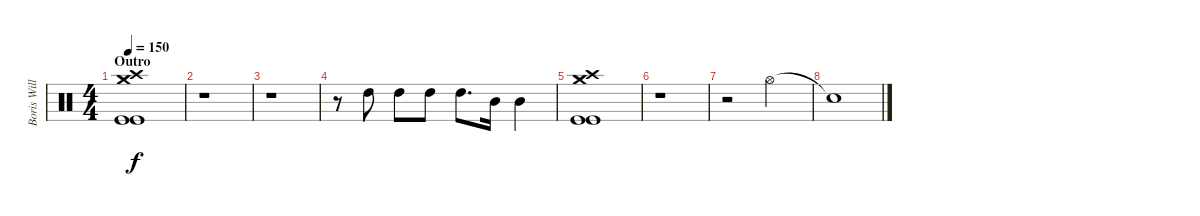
\track ("Boris Williams" "Boris Will") {instrument percussion}
\staff {score}
\articulation defaults
\ts (4 4)
\section ("" "Outro")
\tempo 150
\clef neutral
\ks c
("Crash high (hit)" "Kick (hit)" "Kick (hit)" "Crash medium (hit)" "Crash medium (hit)").1{dy f} |
r.1 |
r.1 |
r.8 "High Tom (hit)".8 "High Tom (hit)".8 "High Tom (hit)".8 "High Tom (hit)".8{d} "Mid Tom (hit)".16 "Mid Tom (hit)".4 |
("Crash high (hit)" "Kick (hit)" "Kick (hit)" "Crash medium (hit)" "Crash medium (hit)").1 |
r.1 |
r.2 "Hi-Hat (open)".2 |
"Snare (hit)"{t}.1
